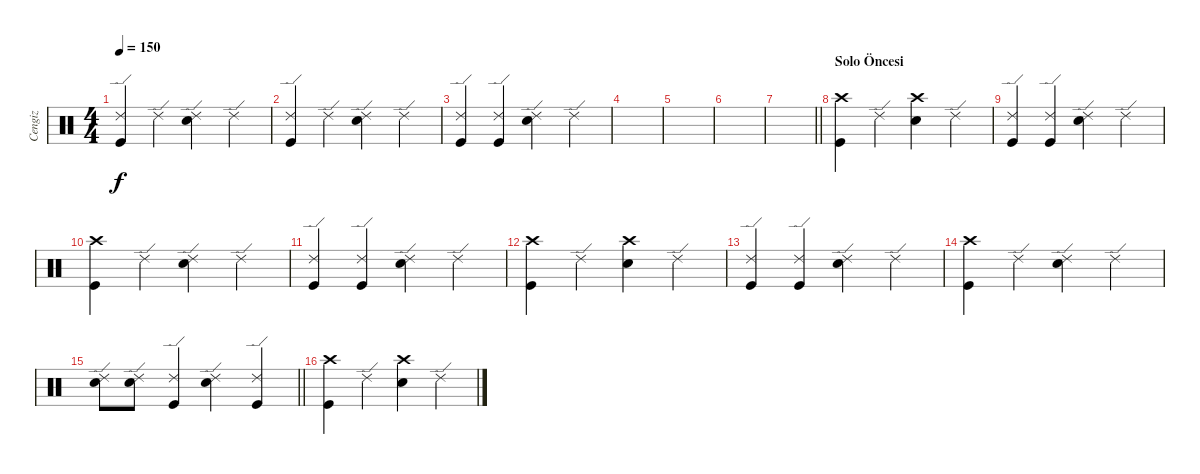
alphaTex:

\track ("Cengiz" "Cengiz") {instrument percussion}
\staff {score}
\articulation defaults
\ts (4 4)
\tempo 150
\clef neutral
\ks c
("Ride (edge) 2" "Kick (hit)").4{dy f} "Ride (edge) 2".4 ("Ride (edge) 2" "Snare (hit) 2").4 "Ride (edge) 2".4 |
("Ride (edge) 2" "Kick (hit)").4 "Ride (edge) 2".4 ("Ride (edge) 2" "Snare (hit) 2").4 "Ride (edge) 2".4 |
("Ride (edge) 2" "Kick (hit)").4 ("Ride (edge) 2" "Kick (hit)").4 ("Ride (edge) 2" "Snare (hit) 2").4 "Ride (edge) 2".4 |
|
|
|
\barLineRight lightlight
|
\section ("" "Solo Öncesi")
("Crash high (hit)" "Kick (hit)").4 "Ride (edge) 2".4 ("Crash high (hit)" "Snare (hit) 2").4 "Ride (edge) 2".4 |
("Ride (edge) 2" "Kick (hit)").4 ("Ride (edge) 2" "Kick (hit)").4 ("Ride (edge) 2" "Snare (hit) 2").4 "Ride (edge) 2".4 |
("Crash high (hit)" "Kick (hit)").4 "Ride (edge) 2".4 ("Ride (edge) 2" "Snare (hit) 2").4 "Ride (edge) 2".4 |
("Ride (edge) 2" "Kick (hit)").4 ("Ride (edge) 2" "Kick (hit)").4 ("Ride (edge) 2" "Snare (hit) 2").4 "Ride (edge) 2".4 |
("Crash high (hit)" "Kick (hit)").4 "Ride (edge) 2".4 ("Crash high (hit)" "Snare (hit) 2").4 "Ride (edge) 2".4 |
("Ride (edge) 2" "Kick (hit)").4 ("Ride (edge) 2" "Kick (hit)").4 ("Ride (edge) 2" "Snare (hit) 2").4 "Ride (edge) 2".4 |
("Crash high (hit)" "Kick (hit)").4 "Ride (edge) 2".4 ("Ride (edge) 2" "Snare (hit) 2").4 "Ride (edge) 2".4 |
\barLineRight lightlight
("Ride (edge) 2" "Snare (hit) 2").8 ("Ride (edge) 2" "Snare (hit) 2").8 ("Ride (edge) 2" "Kick (hit)").4 ("Ride (edge) 2" "Snare (hit) 2").4 ("Ride (edge) 2" "Kick (hit)").4 |
("Crash high (hit)" "Kick (hit)").4 "Ride (edge) 2".4 ("Crash high (hit)" "Snare (hit) 2").4 "Ride (edge) 2".4
